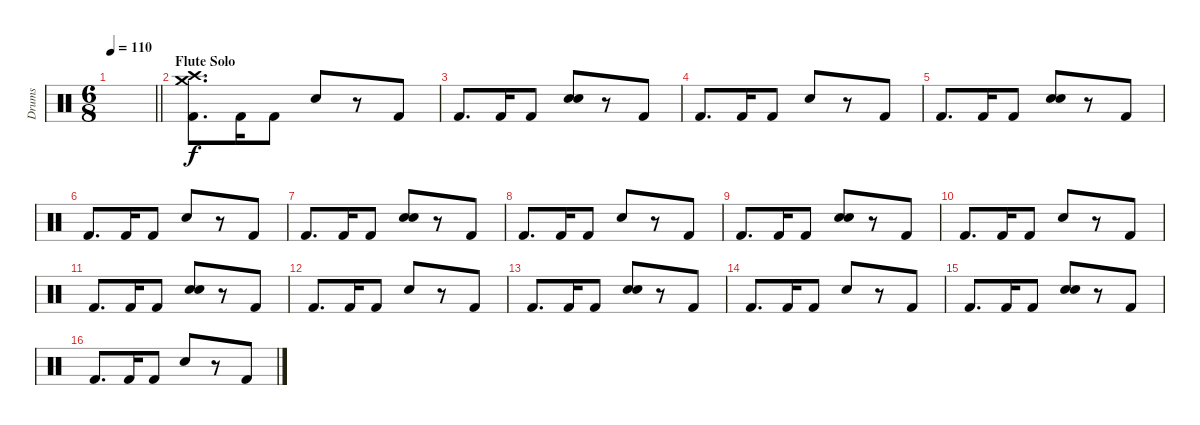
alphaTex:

\track ("Drums" "Drums") {instrument percussion}
\staff {score}
\articulation defaults
\ts (6 8)
\tempo 110
\clef neutral
\barLineRight lightlight
\ks c
|
\section ("" "Flute Solo")
("Crash high (hit)" "Crash medium (hit)" "Kick (hit) 2").8{d} "Kick (hit) 2".16 "Kick (hit) 2".8 "Electric Snare (hit)".8 r.8 "Kick (hit) 2".8 |
"Kick (hit) 2".8{d} "Kick (hit) 2".16 "Kick (hit) 2".8 ("Hand Clap (hit)" "Snare (hit) 2").8 r.8 "Kick (hit) 2".8 |
"Kick (hit) 2".8{d} "Kick (hit) 2".16 "Kick (hit) 2".8 "Electric Snare (hit)".8 r.8 "Kick (hit) 2".8 |
"Kick (hit) 2".8{d} "Kick (hit) 2".16 "Kick (hit) 2".8 ("Hand Clap (hit)" "Snare (hit) 2").8 r.8 "Kick (hit) 2".8 |
"Kick (hit) 2".8{d} "Kick (hit) 2".16 "Kick (hit) 2".8 "Electric Snare (hit)".8 r.8 "Kick (hit) 2".8 |
"Kick (hit) 2".8{d} "Kick (hit) 2".16 "Kick (hit) 2".8 ("Hand Clap (hit)" "Snare (hit) 2").8 r.8 "Kick (hit) 2".8 |
"Kick (hit) 2".8{d} "Kick (hit) 2".16 "Kick (hit) 2".8 "Electric Snare (hit)".8 r.8 "Kick (hit) 2".8 |
"Kick (hit) 2".8{d} "Kick (hit) 2".16 "Kick (hit) 2".8 ("Hand Clap (hit)" "Snare (hit) 2").8 r.8 "Kick (hit) 2".8 |
"Kick (hit) 2".8{d} "Kick (hit) 2".16 "Kick (hit) 2".8 "Electric Snare (hit)".8 r.8 "Kick (hit) 2".8 |
"Kick (hit) 2".8{d} "Kick (hit) 2".16 "Kick (hit) 2".8 ("Hand Clap (hit)" "Snare (hit) 2").8 r.8 "Kick (hit) 2".8 |
"Kick (hit) 2".8{d} "Kick (hit) 2".16 "Kick (hit) 2".8 "Electric Snare (hit)".8 r.8 "Kick (hit) 2".8 |
"Kick (hit) 2".8{d} "Kick (hit) 2".16 "Kick (hit) 2".8 ("Hand Clap (hit)" "Snare (hit) 2").8 r.8 "Kick (hit) 2".8 |
"Kick (hit) 2".8{d} "Kick (hit) 2".16 "Kick (hit) 2".8 "Electric Snare (hit)".8 r.8 "Kick (hit) 2".8 |
"Kick (hit) 2".8{d} "Kick (hit) 2".16 "Kick (hit) 2".8 ("Hand Clap (hit)" "Snare (hit) 2").8 r.8 "Kick (hit) 2".8 |
"Kick (hit) 2".8{d} "Kick (hit) 2".16 "Kick (hit) 2".8 "Electric Snare (hit)".8 r.8 "Kick (hit) 2".8
